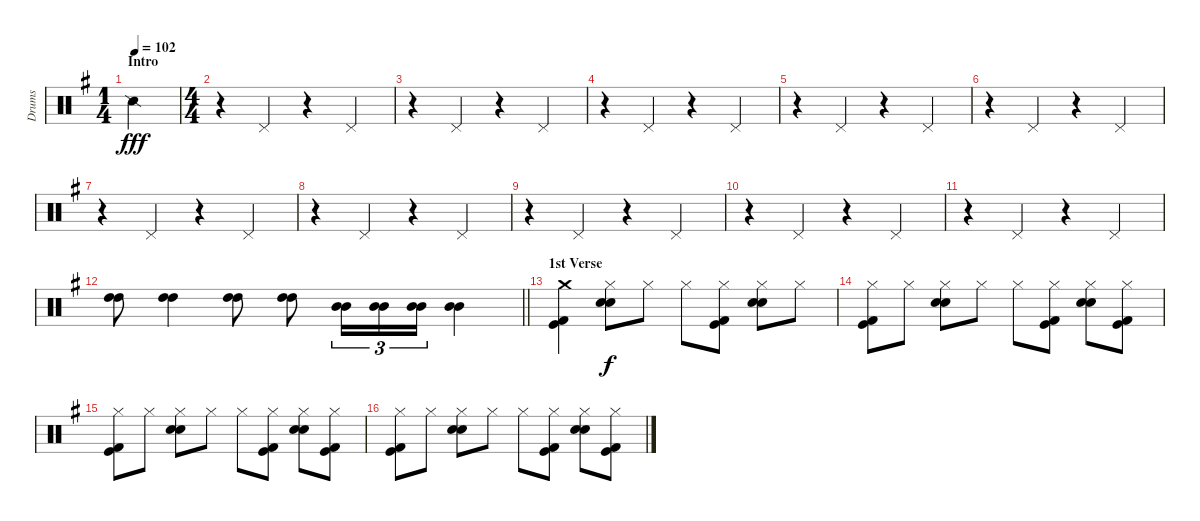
\track ("Drums" "Drums") {instrument percussion}
\staff {score}
\articulation defaults
\ts (1 4)
\section ("" "Intro")
\tempo 102
\clef neutral
\ks g "Snare (side stick) 2".4{dy fff}
|
\ts (4 4)
r.4 "Pedal Hi-Hat (hit)".4 r.4 "Pedal Hi-Hat (hit)".4 |
r.4 "Pedal Hi-Hat (hit)".4 r.4 "Pedal Hi-Hat (hit)".4 |
r.4 "Pedal Hi-Hat (hit)".4 r.4 "Pedal Hi-Hat (hit)".4 |
r.4 "Pedal Hi-Hat (hit)".4 r.4 "Pedal Hi-Hat (hit)".4 |
r.4 "Pedal Hi-Hat (hit)".4 r.4 "Pedal Hi-Hat (hit)".4 |
r.4 "Pedal Hi-Hat (hit)".4 r.4 "Pedal Hi-Hat (hit)".4 |
r.4 "Pedal Hi-Hat (hit)".4 r.4 "Pedal Hi-Hat (hit)".4 |
r.4 "Pedal Hi-Hat (hit)".4 r.4 "Pedal Hi-Hat (hit)".4 |
r.4 "Pedal Hi-Hat (hit)".4 r.4 "Pedal Hi-Hat (hit)".4 |
r.4 "Pedal Hi-Hat (hit)".4 r.4 "Pedal Hi-Hat (hit)".4 |
\barLineRight lightlight
("High Tom (hit)" "High Tom (hit)").8 ("High Tom (hit)" "High Tom (hit)").4 ("High Tom (hit)" "High Tom (hit)").8 ("High Tom (hit)" "High Tom (hit)").8 ("Mid Tom (hit)" "Mid Tom (hit)").16{tu (3 2)} ("Mid Tom (hit)" "Mid Tom (hit)").16{tu (3 2)} ("Mid Tom (hit)" "Mid Tom (hit)").16{tu (3 2)} ("Mid Tom (hit)" "Mid Tom (hit)").4 |
\section ("" "1st Verse")
("Crash medium (hit)" "Kick (hit)" "Kick (hit) 2").4 ("Hi-Hat (closed)" "Electric Snare (hit)" "Snare (hit) 2").8{dy f} "Hi-Hat (closed)".8 "Hi-Hat (closed)".8 ("Hi-Hat (closed)" "Kick (hit)" "Kick (hit) 2").8 ("Hi-Hat (closed)" "Electric Snare (hit)" "Snare (hit) 2").8 "Hi-Hat (closed)".8 |
("Hi-Hat (closed)" "Kick (hit)" "Kick (hit) 2").8 "Hi-Hat (closed)".8 ("Hi-Hat (closed)" "Electric Snare (hit)" "Snare (hit) 2").8 "Hi-Hat (closed)".8 "Hi-Hat (closed)".8 ("Hi-Hat (closed)" "Kick (hit)" "Kick (hit) 2").8 ("Hi-Hat (closed)" "Electric Snare (hit)" "Snare (hit) 2").8 ("Hi-Hat (closed)" "Kick (hit)" "Kick (hit) 2").8 |
("Hi-Hat (closed)" "Kick (hit)" "Kick (hit) 2").8 "Hi-Hat (closed)".8 ("Hi-Hat (closed)" "Electric Snare (hit)" "Snare (hit) 2").8 "Hi-Hat (closed)".8 "Hi-Hat (closed)".8 ("Hi-Hat (closed)" "Kick (hit)" "Kick (hit) 2").8 ("Hi-Hat (closed)" "Electric Snare (hit)" "Snare (hit) 2").8 ("Hi-Hat (closed)" "Kick (hit)" "Kick (hit) 2").8 |
("Hi-Hat (closed)" "Kick (hit)" "Kick (hit) 2").8 "Hi-Hat (closed)".8 ("Hi-Hat (closed)" "Electric Snare (hit)" "Snare (hit) 2").8 "Hi-Hat (closed)".8 "Hi-Hat (closed)".8 ("Hi-Hat (closed)" "Kick (hit)" "Kick (hit) 2").8 ("Hi-Hat (closed)" "Electric Snare (hit)" "Snare (hit) 2").8 ("Hi-Hat (closed)" "Kick (hit)" "Kick (hit) 2").8
